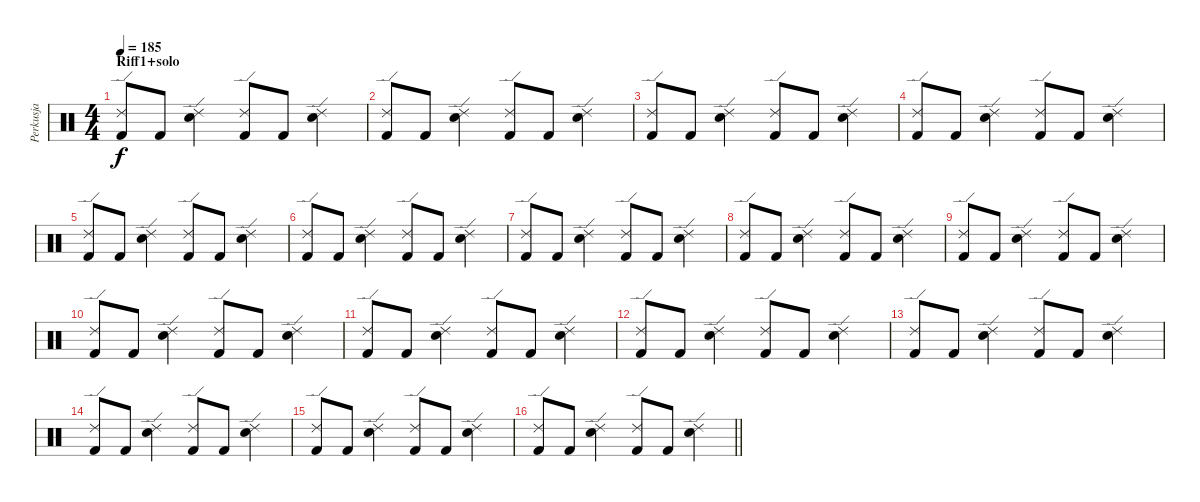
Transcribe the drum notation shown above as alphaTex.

\track ("Perkusja" "Perkusja") {instrument percussion}
\staff {score}
\articulation defaults
\ts (4 4)
\section ("" "Riff1+solo")
\tempo 185
\clef neutral
\ks c
("Ride (edge) 2" "Kick (hit) 2").8{dy f} "Kick (hit) 2".8 ("Ride (edge) 2" "Electric Snare (hit)").4 ("Ride (edge) 2" "Kick (hit) 2").8 "Kick (hit) 2".8 ("Ride (edge) 2" "Electric Snare (hit)").4 |
("Ride (edge) 2" "Kick (hit) 2").8 "Kick (hit) 2".8 ("Ride (edge) 2" "Electric Snare (hit)").4 ("Ride (edge) 2" "Kick (hit) 2").8 "Kick (hit) 2".8 ("Ride (edge) 2" "Electric Snare (hit)").4 |
("Ride (edge) 2" "Kick (hit) 2").8 "Kick (hit) 2".8 ("Ride (edge) 2" "Electric Snare (hit)").4 ("Ride (edge) 2" "Kick (hit) 2").8 "Kick (hit) 2".8 ("Ride (edge) 2" "Electric Snare (hit)").4 |
("Ride (edge) 2" "Kick (hit) 2").8 "Kick (hit) 2".8 ("Ride (edge) 2" "Electric Snare (hit)").4 ("Ride (edge) 2" "Kick (hit) 2").8 "Kick (hit) 2".8 ("Ride (edge) 2" "Electric Snare (hit)").4 |
("Ride (edge) 2" "Kick (hit) 2").8 "Kick (hit) 2".8 ("Ride (edge) 2" "Electric Snare (hit)").4 ("Ride (edge) 2" "Kick (hit) 2").8 "Kick (hit) 2".8 ("Ride (edge) 2" "Electric Snare (hit)").4 |
("Ride (edge) 2" "Kick (hit) 2").8 "Kick (hit) 2".8 ("Ride (edge) 2" "Electric Snare (hit)").4 ("Ride (edge) 2" "Kick (hit) 2").8 "Kick (hit) 2".8 ("Ride (edge) 2" "Electric Snare (hit)").4 |
("Ride (edge) 2" "Kick (hit) 2").8 "Kick (hit) 2".8 ("Ride (edge) 2" "Electric Snare (hit)").4 ("Ride (edge) 2" "Kick (hit) 2").8 "Kick (hit) 2".8 ("Ride (edge) 2" "Electric Snare (hit)").4 |
("Ride (edge) 2" "Kick (hit) 2").8 "Kick (hit) 2".8 ("Ride (edge) 2" "Electric Snare (hit)").4 ("Ride (edge) 2" "Kick (hit) 2").8 "Kick (hit) 2".8 ("Ride (edge) 2" "Electric Snare (hit)").4 |
("Ride (edge) 2" "Kick (hit) 2").8 "Kick (hit) 2".8 ("Ride (edge) 2" "Electric Snare (hit)").4 ("Ride (edge) 2" "Kick (hit) 2").8 "Kick (hit) 2".8 ("Ride (edge) 2" "Electric Snare (hit)").4 |
("Ride (edge) 2" "Kick (hit) 2").8 "Kick (hit) 2".8 ("Ride (edge) 2" "Electric Snare (hit)").4 ("Ride (edge) 2" "Kick (hit) 2").8 "Kick (hit) 2".8 ("Ride (edge) 2" "Electric Snare (hit)").4 |
("Ride (edge) 2" "Kick (hit) 2").8 "Kick (hit) 2".8 ("Ride (edge) 2" "Electric Snare (hit)").4 ("Ride (edge) 2" "Kick (hit) 2").8 "Kick (hit) 2".8 ("Ride (edge) 2" "Electric Snare (hit)").4 |
("Ride (edge) 2" "Kick (hit) 2").8 "Kick (hit) 2".8 ("Ride (edge) 2" "Electric Snare (hit)").4 ("Ride (edge) 2" "Kick (hit) 2").8 "Kick (hit) 2".8 ("Ride (edge) 2" "Electric Snare (hit)").4 |
("Ride (edge) 2" "Kick (hit) 2").8 "Kick (hit) 2".8 ("Ride (edge) 2" "Electric Snare (hit)").4 ("Ride (edge) 2" "Kick (hit) 2").8 "Kick (hit) 2".8 ("Ride (edge) 2" "Electric Snare (hit)").4 |
("Ride (edge) 2" "Kick (hit) 2").8 "Kick (hit) 2".8 ("Ride (edge) 2" "Electric Snare (hit)").4 ("Ride (edge) 2" "Kick (hit) 2").8 "Kick (hit) 2".8 ("Ride (edge) 2" "Electric Snare (hit)").4 |
("Ride (edge) 2" "Kick (hit) 2").8 "Kick (hit) 2".8 ("Ride (edge) 2" "Electric Snare (hit)").4 ("Ride (edge) 2" "Kick (hit) 2").8 "Kick (hit) 2".8 ("Ride (edge) 2" "Electric Snare (hit)").4 |
\barLineRight lightlight
("Ride (edge) 2" "Kick (hit) 2").8 "Kick (hit) 2".8 ("Ride (edge) 2" "Electric Snare (hit)").4 ("Ride (edge) 2" "Kick (hit) 2").8 "Kick (hit) 2".8 ("Ride (edge) 2" "Electric Snare (hit)").4
